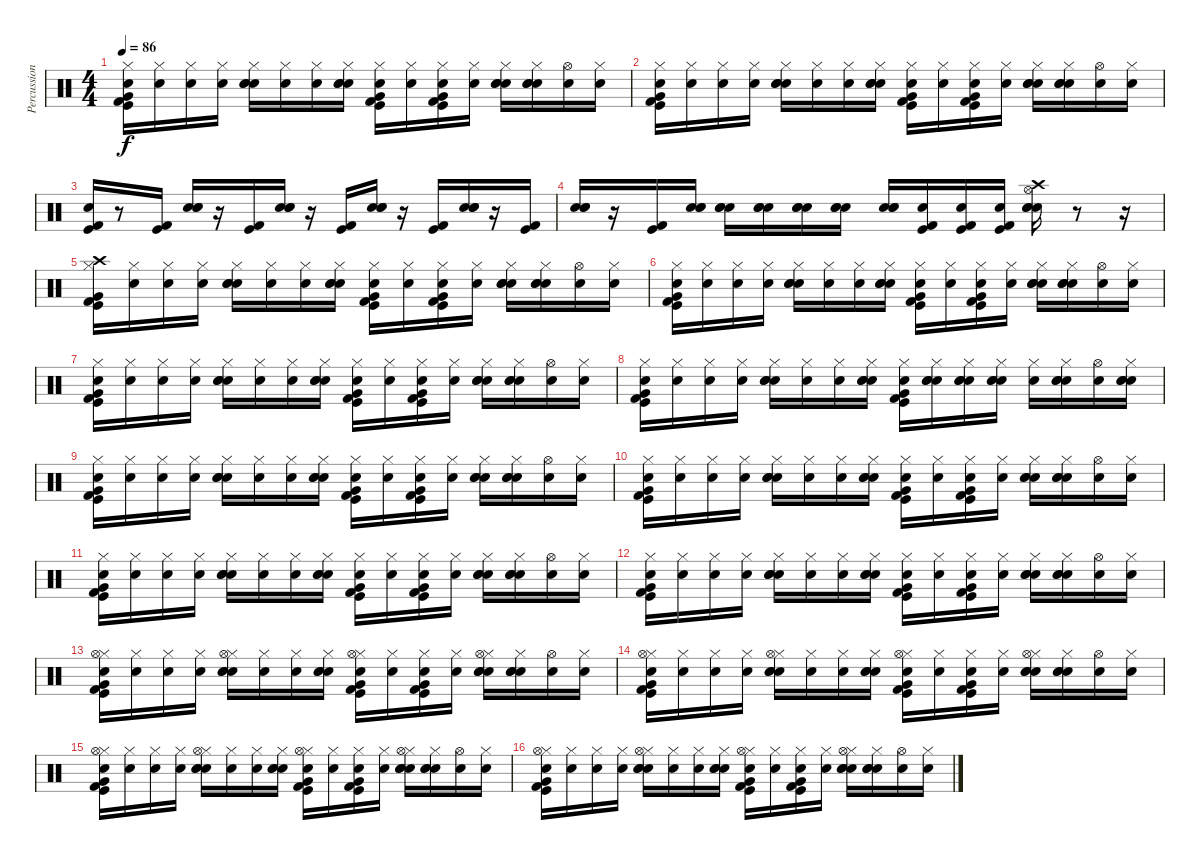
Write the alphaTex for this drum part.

\track ("Percussions (from MIDI)" "Percussion") {instrument percussion}
\staff {score}
\articulation defaults
\ts (4 4)
\tempo 86
\clef neutral
\ks c
("Snare (hit)" "Kick (hit)" "Kick (hit) 2" "Very Low Tom (hit)" "Hi-Hat (closed)").16{dy f} ("Snare (hit)" "Hi-Hat (closed)").16 ("Snare (hit)" "Hi-Hat (closed)").16 ("Snare (hit)" "Hi-Hat (closed)").16 ("Snare (hit)" "Hi-Hat (closed)" "Electric Snare (hit)" "Snare (hit) 2").16 ("Snare (hit)" "Hi-Hat (closed)").16 ("Snare (hit)" "Hi-Hat (closed)").16 ("Snare (hit)" "Hi-Hat (closed)" "Electric Snare (hit)" "Snare (hit) 2").16 ("Snare (hit)" "Hi-Hat (closed)" "Very Low Tom (hit)" "Kick (hit) 2" "Kick (hit)").16 ("Snare (hit)" "Hi-Hat (closed)").16 ("Snare (hit)" "Hi-Hat (closed)" "Very Low Tom (hit)" "Kick (hit) 2" "Kick (hit)").16 ("Snare (hit)" "Hi-Hat (closed)").16 ("Snare (hit)" "Hi-Hat (closed)" "Electric Snare (hit)" "Snare (hit) 2").16 ("Snare (hit)" "Hi-Hat (closed)" "Snare (hit) 2" "Electric Snare (hit)").16 ("Snare (hit)" "Hi-Hat (open)").16 ("Snare (hit)" "Hi-Hat (closed)").16 |
("Snare (hit)" "Hi-Hat (closed)" "Very Low Tom (hit)" "Kick (hit) 2" "Kick (hit)").16 ("Snare (hit)" "Hi-Hat (closed)").16 ("Snare (hit)" "Hi-Hat (closed)").16 ("Snare (hit)" "Hi-Hat (closed)").16 ("Snare (hit)" "Hi-Hat (closed)" "Electric Snare (hit)" "Snare (hit) 2").16 ("Snare (hit)" "Hi-Hat (closed)").16 ("Snare (hit)" "Hi-Hat (closed)").16 ("Snare (hit)" "Hi-Hat (closed)" "Electric Snare (hit)" "Snare (hit) 2").16 ("Snare (hit)" "Hi-Hat (closed)" "Very Low Tom (hit)" "Kick (hit) 2" "Kick (hit)").16 ("Snare (hit)" "Hi-Hat (closed)").16 ("Snare (hit)" "Hi-Hat (closed)" "Very Low Tom (hit)" "Kick (hit) 2" "Kick (hit)").16 ("Snare (hit)" "Hi-Hat (closed)").16 ("Snare (hit)" "Hi-Hat (closed)" "Electric Snare (hit)" "Snare (hit) 2").16 ("Snare (hit)" "Hi-Hat (closed)" "Snare (hit) 2" "Electric Snare (hit)").16 ("Snare (hit)" "Hi-Hat (open)").16 ("Snare (hit)" "Hi-Hat (closed)").16 |
("Snare (hit)" "Kick (hit)" "Kick (hit) 2").16 r.8 ("Kick (hit) 2" "Kick (hit)").16 ("Snare (hit)" "Snare (hit) 2" "Electric Snare (hit)").16 r.16 ("Kick (hit)" "Kick (hit) 2").16 ("Snare (hit)" "Electric Snare (hit)" "Snare (hit) 2").16 r.16 ("Kick (hit) 2" "Kick (hit)").16 ("Snare (hit)" "Snare (hit) 2" "Electric Snare (hit)").16 r.16 ("Kick (hit)" "Kick (hit) 2").16 ("Snare (hit)" "Electric Snare (hit)" "Snare (hit) 2").16 r.16 ("Kick (hit) 2" "Kick (hit)").16 |
("Snare (hit)" "Electric Snare (hit)" "Snare (hit) 2").16 r.16 ("Kick (hit) 2" "Kick (hit)").16 ("Snare (hit)" "Electric Snare (hit)" "Snare (hit) 2").16 ("Snare (hit)" "Electric Snare (hit)" "Snare (hit) 2").16 ("Snare (hit)" "Electric Snare (hit)" "Snare (hit) 2").16 ("Snare (hit)" "Electric Snare (hit)" "Snare (hit) 2").16 ("Snare (hit)" "Electric Snare (hit)" "Snare (hit) 2").16 ("Snare (hit)" "Electric Snare (hit)" "Snare (hit) 2").16 ("Snare (hit)" "Kick (hit) 2" "Kick (hit)").16 ("Snare (hit)" "Kick (hit) 2" "Kick (hit)").16 ("Snare (hit)" "Kick (hit) 2" "Kick (hit)").16 ("Snare (hit)" "Crash high (hit)" "Hi-Hat (open)" "Electric Snare (hit)" "Snare (hit) 2").16 r.8 r.16 |
("Kick (hit)" "Kick (hit) 2" "Very Low Tom (hit)" "Hi-Hat (closed)" "Crash high (hit)").16 ("Snare (hit)" "Hi-Hat (closed)").16 ("Snare (hit)" "Hi-Hat (closed)").16 ("Snare (hit)" "Hi-Hat (closed)").16 ("Snare (hit)" "Hi-Hat (closed)" "Electric Snare (hit)" "Snare (hit) 2").16 ("Snare (hit)" "Hi-Hat (closed)").16 ("Snare (hit)" "Hi-Hat (closed)").16 ("Snare (hit)" "Hi-Hat (closed)" "Electric Snare (hit)" "Snare (hit) 2").16 ("Snare (hit)" "Hi-Hat (closed)" "Very Low Tom (hit)" "Kick (hit) 2" "Kick (hit)").16 ("Snare (hit)" "Hi-Hat (closed)").16 ("Snare (hit)" "Hi-Hat (closed)" "Very Low Tom (hit)" "Kick (hit) 2" "Kick (hit)").16 ("Snare (hit)" "Hi-Hat (closed)").16 ("Snare (hit)" "Hi-Hat (closed)" "Electric Snare (hit)" "Snare (hit) 2").16 ("Snare (hit)" "Hi-Hat (closed)" "Snare (hit) 2" "Electric Snare (hit)").16 ("Snare (hit)" "Hi-Hat (open)").16 ("Snare (hit)" "Hi-Hat (closed)").16 |
("Snare (hit)" "Hi-Hat (closed)" "Very Low Tom (hit)" "Kick (hit) 2" "Kick (hit)").16 ("Snare (hit)" "Hi-Hat (closed)").16 ("Snare (hit)" "Hi-Hat (closed)").16 ("Snare (hit)" "Hi-Hat (closed)").16 ("Snare (hit)" "Hi-Hat (closed)" "Electric Snare (hit)" "Snare (hit) 2").16 ("Snare (hit)" "Hi-Hat (closed)").16 ("Snare (hit)" "Hi-Hat (closed)").16 ("Snare (hit)" "Hi-Hat (closed)" "Electric Snare (hit)" "Snare (hit) 2").16 ("Snare (hit)" "Hi-Hat (closed)" "Very Low Tom (hit)" "Kick (hit) 2" "Kick (hit)").16 ("Snare (hit)" "Hi-Hat (closed)").16 ("Snare (hit)" "Hi-Hat (closed)" "Very Low Tom (hit)" "Kick (hit) 2" "Kick (hit)").16 ("Snare (hit)" "Hi-Hat (closed)").16 ("Snare (hit)" "Hi-Hat (closed)" "Electric Snare (hit)" "Snare (hit) 2").16 ("Snare (hit)" "Hi-Hat (closed)" "Snare (hit) 2" "Electric Snare (hit)").16 ("Snare (hit)" "Hi-Hat (open)").16 ("Snare (hit)" "Hi-Hat (closed)").16 |
("Snare (hit)" "Hi-Hat (closed)" "Very Low Tom (hit)" "Kick (hit) 2" "Kick (hit)").16 ("Snare (hit)" "Hi-Hat (closed)").16 ("Snare (hit)" "Hi-Hat (closed)").16 ("Snare (hit)" "Hi-Hat (closed)").16 ("Snare (hit)" "Hi-Hat (closed)" "Electric Snare (hit)" "Snare (hit) 2").16 ("Snare (hit)" "Hi-Hat (closed)").16 ("Snare (hit)" "Hi-Hat (closed)").16 ("Snare (hit)" "Hi-Hat (closed)" "Electric Snare (hit)" "Snare (hit) 2").16 ("Snare (hit)" "Hi-Hat (closed)" "Very Low Tom (hit)" "Kick (hit) 2" "Kick (hit)").16 ("Snare (hit)" "Hi-Hat (closed)").16 ("Snare (hit)" "Hi-Hat (closed)" "Very Low Tom (hit)" "Kick (hit) 2" "Kick (hit)").16 ("Snare (hit)" "Hi-Hat (closed)").16 ("Snare (hit)" "Hi-Hat (closed)" "Electric Snare (hit)" "Snare (hit) 2").16 ("Snare (hit)" "Hi-Hat (closed)" "Snare (hit) 2" "Electric Snare (hit)").16 ("Snare (hit)" "Hi-Hat (open)").16 ("Snare (hit)" "Hi-Hat (closed)").16 |
("Snare (hit)" "Kick (hit)" "Kick (hit) 2" "Very Low Tom (hit)" "Hi-Hat (closed)").16 ("Snare (hit)" "Hi-Hat (closed)").16 ("Snare (hit)" "Hi-Hat (closed)").16 ("Snare (hit)" "Hi-Hat (closed)").16 ("Snare (hit)" "Hi-Hat (closed)" "Electric Snare (hit)" "Snare (hit) 2").16 ("Snare (hit)" "Hi-Hat (closed)").16 ("Snare (hit)" "Hi-Hat (closed)").16 ("Snare (hit)" "Hi-Hat (closed)" "Electric Snare (hit)" "Snare (hit) 2").16 ("Snare (hit)" "Kick (hit) 2" "Kick (hit)" "Very Low Tom (hit)" "Hi-Hat (closed)").16 ("Snare (hit)" "Electric Snare (hit)" "Snare (hit) 2" "Hi-Hat (closed)").16 ("Snare (hit)" "Electric Snare (hit)" "Snare (hit) 2" "Hi-Hat (closed)").16 ("Snare (hit)" "Electric Snare (hit)" "Snare (hit) 2" "Hi-Hat (closed)").16 ("Snare (hit)" "Hi-Hat (closed)").16 ("Snare (hit)" "Electric Snare (hit)" "Snare (hit) 2" "Hi-Hat (closed)").16 ("Snare (hit)" "Hi-Hat (open)").16 ("Snare (hit)" "Electric Snare (hit)" "Snare (hit) 2" "Hi-Hat (closed)").16 |
("Snare (hit)" "Kick (hit)" "Kick (hit) 2" "Very Low Tom (hit)" "Hi-Hat (closed)").16 ("Snare (hit)" "Hi-Hat (closed)").16 ("Snare (hit)" "Hi-Hat (closed)").16 ("Snare (hit)" "Hi-Hat (closed)").16 ("Snare (hit)" "Hi-Hat (closed)" "Electric Snare (hit)" "Snare (hit) 2").16 ("Snare (hit)" "Hi-Hat (closed)").16 ("Snare (hit)" "Hi-Hat (closed)").16 ("Snare (hit)" "Hi-Hat (closed)" "Electric Snare (hit)" "Snare (hit) 2").16 ("Snare (hit)" "Hi-Hat (closed)" "Very Low Tom (hit)" "Kick (hit) 2" "Kick (hit)").16 ("Snare (hit)" "Hi-Hat (closed)").16 ("Snare (hit)" "Hi-Hat (closed)" "Very Low Tom (hit)" "Kick (hit) 2" "Kick (hit)").16 ("Snare (hit)" "Hi-Hat (closed)").16 ("Snare (hit)" "Hi-Hat (closed)" "Electric Snare (hit)" "Snare (hit) 2").16 ("Snare (hit)" "Hi-Hat (closed)" "Snare (hit) 2" "Electric Snare (hit)").16 ("Snare (hit)" "Hi-Hat (open)").16 ("Snare (hit)" "Hi-Hat (closed)").16 |
("Snare (hit)" "Hi-Hat (closed)" "Very Low Tom (hit)" "Kick (hit) 2" "Kick (hit)").16 ("Snare (hit)" "Hi-Hat (closed)").16 ("Snare (hit)" "Hi-Hat (closed)").16 ("Snare (hit)" "Hi-Hat (closed)").16 ("Snare (hit)" "Hi-Hat (closed)" "Electric Snare (hit)" "Snare (hit) 2").16 ("Snare (hit)" "Hi-Hat (closed)").16 ("Snare (hit)" "Hi-Hat (closed)").16 ("Snare (hit)" "Hi-Hat (closed)" "Electric Snare (hit)" "Snare (hit) 2").16 ("Snare (hit)" "Hi-Hat (closed)" "Very Low Tom (hit)" "Kick (hit) 2" "Kick (hit)").16 ("Snare (hit)" "Hi-Hat (closed)").16 ("Snare (hit)" "Hi-Hat (closed)" "Very Low Tom (hit)" "Kick (hit) 2" "Kick (hit)").16 ("Snare (hit)" "Hi-Hat (closed)").16 ("Snare (hit)" "Hi-Hat (closed)" "Electric Snare (hit)" "Snare (hit) 2").16 ("Snare (hit)" "Hi-Hat (closed)" "Snare (hit) 2" "Electric Snare (hit)").16 ("Snare (hit)" "Hi-Hat (open)").16 ("Snare (hit)" "Hi-Hat (closed)").16 |
("Snare (hit)" "Hi-Hat (closed)" "Very Low Tom (hit)" "Kick (hit) 2" "Kick (hit)").16 ("Snare (hit)" "Hi-Hat (closed)").16 ("Snare (hit)" "Hi-Hat (closed)").16 ("Snare (hit)" "Hi-Hat (closed)").16 ("Snare (hit)" "Hi-Hat (closed)" "Electric Snare (hit)" "Snare (hit) 2").16 ("Snare (hit)" "Hi-Hat (closed)").16 ("Snare (hit)" "Hi-Hat (closed)").16 ("Snare (hit)" "Hi-Hat (closed)" "Electric Snare (hit)" "Snare (hit) 2").16 ("Snare (hit)" "Hi-Hat (closed)" "Very Low Tom (hit)" "Kick (hit) 2" "Kick (hit)").16 ("Snare (hit)" "Hi-Hat (closed)").16 ("Snare (hit)" "Hi-Hat (closed)" "Very Low Tom (hit)" "Kick (hit) 2" "Kick (hit)").16 ("Snare (hit)" "Hi-Hat (closed)").16 ("Snare (hit)" "Hi-Hat (closed)" "Electric Snare (hit)" "Snare (hit) 2").16 ("Snare (hit)" "Hi-Hat (closed)" "Snare (hit) 2" "Electric Snare (hit)").16 ("Snare (hit)" "Hi-Hat (open)").16 ("Snare (hit)" "Hi-Hat (closed)").16 |
("Snare (hit)" "Hi-Hat (closed)" "Very Low Tom (hit)" "Kick (hit) 2" "Kick (hit)").16 ("Snare (hit)" "Hi-Hat (closed)").16 ("Snare (hit)" "Hi-Hat (closed)").16 ("Snare (hit)" "Hi-Hat (closed)").16 ("Snare (hit)" "Hi-Hat (closed)" "Electric Snare (hit)" "Snare (hit) 2").16 ("Snare (hit)" "Hi-Hat (closed)").16 ("Snare (hit)" "Hi-Hat (closed)").16 ("Snare (hit)" "Hi-Hat (closed)" "Electric Snare (hit)" "Snare (hit) 2").16 ("Snare (hit)" "Hi-Hat (closed)" "Very Low Tom (hit)" "Kick (hit) 2" "Kick (hit)").16 ("Snare (hit)" "Hi-Hat (closed)").16 ("Snare (hit)" "Hi-Hat (closed)" "Very Low Tom (hit)" "Kick (hit) 2" "Kick (hit)").16 ("Snare (hit)" "Hi-Hat (closed)").16 ("Snare (hit)" "Hi-Hat (closed)" "Electric Snare (hit)" "Snare (hit) 2").16 ("Snare (hit)" "Hi-Hat (closed)" "Snare (hit) 2" "Electric Snare (hit)").16 ("Snare (hit)" "Hi-Hat (open)").16 ("Snare (hit)" "Hi-Hat (closed)").16 |
("Snare (hit)" "Kick (hit)" "Kick (hit) 2" "Very Low Tom (hit)" "Hi-Hat (closed)" "Hi-Hat (open)").16 ("Snare (hit)" "Hi-Hat (closed)").16 ("Snare (hit)" "Hi-Hat (closed)").16 ("Snare (hit)" "Hi-Hat (closed)").16 ("Snare (hit)" "Hi-Hat (closed)" "Electric Snare (hit)" "Snare (hit) 2" "Hi-Hat (open)").16 ("Snare (hit)" "Hi-Hat (closed)").16 ("Snare (hit)" "Hi-Hat (closed)").16 ("Snare (hit)" "Hi-Hat (closed)" "Electric Snare (hit)" "Snare (hit) 2").16 ("Snare (hit)" "Hi-Hat (closed)" "Very Low Tom (hit)" "Kick (hit) 2" "Kick (hit)" "Hi-Hat (open)").16 ("Snare (hit)" "Hi-Hat (closed)").16 ("Snare (hit)" "Hi-Hat (closed)" "Very Low Tom (hit)" "Kick (hit) 2" "Kick (hit)").16 ("Snare (hit)" "Hi-Hat (closed)").16 ("Snare (hit)" "Hi-Hat (closed)" "Electric Snare (hit)" "Snare (hit) 2" "Hi-Hat (open)").16 ("Snare (hit)" "Hi-Hat (closed)" "Snare (hit) 2" "Electric Snare (hit)").16 ("Snare (hit)" "Hi-Hat (open)").16 ("Snare (hit)" "Hi-Hat (closed)").16 |
("Snare (hit)" "Kick (hit)" "Kick (hit) 2" "Very Low Tom (hit)" "Hi-Hat (closed)" "Hi-Hat (open)").16 ("Snare (hit)" "Hi-Hat (closed)").16 ("Snare (hit)" "Hi-Hat (closed)").16 ("Snare (hit)" "Hi-Hat (closed)").16 ("Snare (hit)" "Hi-Hat (closed)" "Electric Snare (hit)" "Snare (hit) 2" "Hi-Hat (open)").16 ("Snare (hit)" "Hi-Hat (closed)").16 ("Snare (hit)" "Hi-Hat (closed)").16 ("Snare (hit)" "Hi-Hat (closed)" "Electric Snare (hit)" "Snare (hit) 2").16 ("Snare (hit)" "Hi-Hat (closed)" "Very Low Tom (hit)" "Kick (hit) 2" "Kick (hit)" "Hi-Hat (open)").16 ("Snare (hit)" "Hi-Hat (closed)").16 ("Snare (hit)" "Hi-Hat (closed)" "Very Low Tom (hit)" "Kick (hit) 2" "Kick (hit)").16 ("Snare (hit)" "Hi-Hat (closed)").16 ("Snare (hit)" "Hi-Hat (closed)" "Electric Snare (hit)" "Snare (hit) 2" "Hi-Hat (open)").16 ("Snare (hit)" "Hi-Hat (closed)" "Snare (hit) 2" "Electric Snare (hit)").16 ("Snare (hit)" "Hi-Hat (open)").16 ("Snare (hit)" "Hi-Hat (closed)").16 |
("Snare (hit)" "Kick (hit)" "Kick (hit) 2" "Very Low Tom (hit)" "Hi-Hat (closed)" "Hi-Hat (open)").16 ("Snare (hit)" "Hi-Hat (closed)").16 ("Snare (hit)" "Hi-Hat (closed)").16 ("Snare (hit)" "Hi-Hat (closed)").16 ("Snare (hit)" "Hi-Hat (closed)" "Electric Snare (hit)" "Snare (hit) 2" "Hi-Hat (open)").16 ("Snare (hit)" "Hi-Hat (closed)").16 ("Snare (hit)" "Hi-Hat (closed)").16 ("Snare (hit)" "Hi-Hat (closed)" "Electric Snare (hit)" "Snare (hit) 2").16 ("Snare (hit)" "Hi-Hat (closed)" "Very Low Tom (hit)" "Kick (hit) 2" "Kick (hit)" "Hi-Hat (open)").16 ("Snare (hit)" "Hi-Hat (closed)").16 ("Snare (hit)" "Hi-Hat (closed)" "Very Low Tom (hit)" "Kick (hit) 2" "Kick (hit)").16 ("Snare (hit)" "Hi-Hat (closed)").16 ("Snare (hit)" "Hi-Hat (closed)" "Electric Snare (hit)" "Snare (hit) 2" "Hi-Hat (open)").16 ("Snare (hit)" "Hi-Hat (closed)" "Snare (hit) 2" "Electric Snare (hit)").16 ("Snare (hit)" "Hi-Hat (open)").16 ("Snare (hit)" "Hi-Hat (closed)").16 |
("Snare (hit)" "Kick (hit)" "Kick (hit) 2" "Very Low Tom (hit)" "Hi-Hat (closed)" "Hi-Hat (open)").16 ("Snare (hit)" "Hi-Hat (closed)").16 ("Snare (hit)" "Hi-Hat (closed)").16 ("Snare (hit)" "Hi-Hat (closed)").16 ("Snare (hit)" "Hi-Hat (closed)" "Electric Snare (hit)" "Snare (hit) 2" "Hi-Hat (open)").16 ("Snare (hit)" "Hi-Hat (closed)").16 ("Snare (hit)" "Hi-Hat (closed)").16 ("Snare (hit)" "Hi-Hat (closed)" "Electric Snare (hit)" "Snare (hit) 2").16 ("Snare (hit)" "Hi-Hat (closed)" "Very Low Tom (hit)" "Kick (hit) 2" "Kick (hit)" "Hi-Hat (open)").16 ("Snare (hit)" "Hi-Hat (closed)").16 ("Snare (hit)" "Hi-Hat (closed)" "Very Low Tom (hit)" "Kick (hit) 2" "Kick (hit)").16 ("Snare (hit)" "Hi-Hat (closed)").16 ("Snare (hit)" "Hi-Hat (closed)" "Electric Snare (hit)" "Snare (hit) 2" "Hi-Hat (open)").16 ("Snare (hit)" "Hi-Hat (closed)" "Snare (hit) 2" "Electric Snare (hit)").16 ("Snare (hit)" "Hi-Hat (open)").16 ("Snare (hit)" "Hi-Hat (closed)").16
